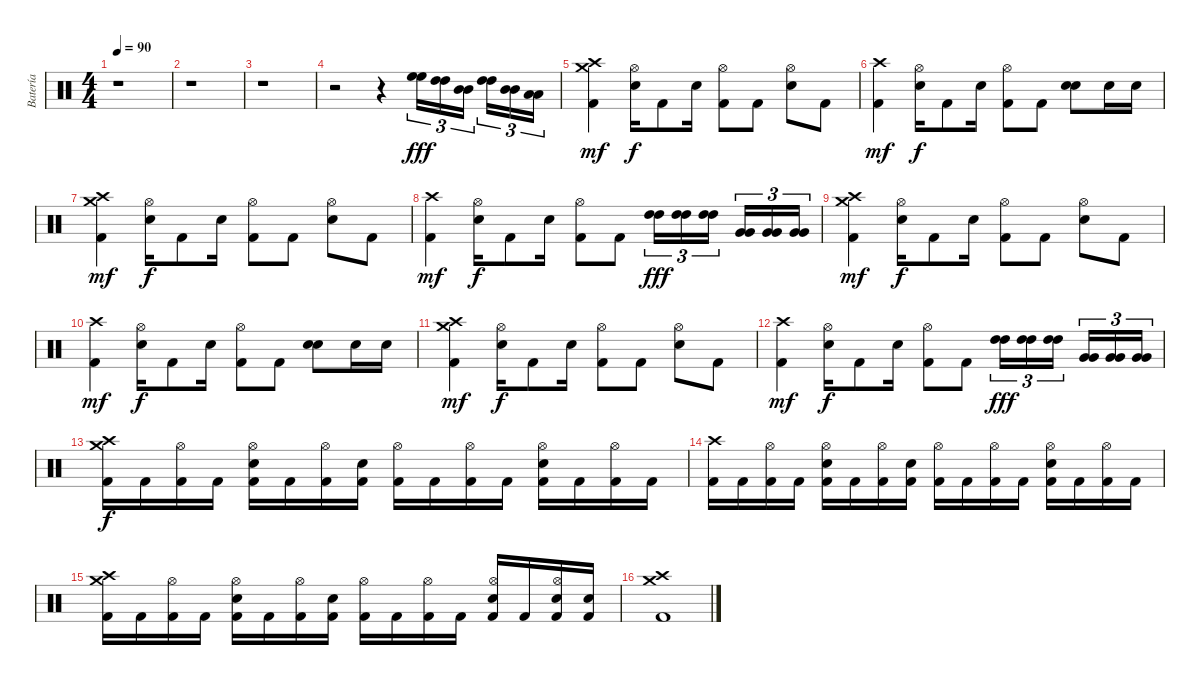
\track ("Batería" "Batería") {instrument percussion}
\staff {score}
\articulation defaults
\ts (4 4)
\tempo 90
\clef neutral
\ks c
r.1{dy fff} |
r.1 |
r.1 |
r.2 r.4 ("High Floor Tom (hit)" "High Floor Tom (hit)").16{tu (3 2)} ("High Tom (hit)" "High Tom (hit)").16{tu (3 2)} ("Mid Tom (hit)" "Mid Tom (hit)").16{tu (3 2)} ("High Tom (hit)" "High Tom (hit)").16{tu (3 2)} ("Mid Tom (hit)" "Mid Tom (hit)").16{tu (3 2)} ("Low Tom (hit)" "Low Tom (hit)").16{tu (3 2)} |
("Crash high (hit)" "Crash medium (hit)" "Kick (hit) 2").4{dy mf} ("Hi-Hat (open)" "Snare (hit) 2").16{dy f} "Kick (hit) 2".8 "Snare (hit) 2".16 ("Hi-Hat (open)" "Kick (hit) 2").8 "Kick (hit) 2".8 ("Hi-Hat (open)" "Snare (hit) 2").8 "Kick (hit) 2".8 |
("Crash high (hit)" "Kick (hit) 2").4{dy mf} ("Hi-Hat (open)" "Snare (hit) 2").16{dy f} "Kick (hit) 2".8 "Snare (hit) 2".16 ("Hi-Hat (open)" "Kick (hit) 2").8 "Kick (hit) 2".8 ("Snare (hit) 2" "Snare (hit) 2").8{bd 240} "Snare (hit) 2".16 "Snare (hit) 2".16 |
("Crash high (hit)" "Crash medium (hit)" "Kick (hit) 2").4{dy mf} ("Hi-Hat (open)" "Snare (hit) 2").16{dy f} "Kick (hit) 2".8 "Snare (hit) 2".16 ("Hi-Hat (open)" "Kick (hit) 2").8 "Kick (hit) 2".8 ("Hi-Hat (open)" "Snare (hit) 2").8 "Kick (hit) 2".8 |
("Crash high (hit)" "Kick (hit) 2").4{dy mf} ("Hi-Hat (open)" "Snare (hit) 2").16{dy f} "Kick (hit) 2".8 "Snare (hit) 2".16 ("Hi-Hat (open)" "Kick (hit) 2").8 "Kick (hit) 2".8 ("High Tom (hit)" "High Tom (hit)").16{tu (3 2) dy fff} ("High Tom (hit)" "High Tom (hit)").16{tu (3 2)} ("High Tom (hit)" "High Tom (hit)").16{tu (3 2)} ("Very Low Tom (hit)" "Very Low Tom (hit)").16{tu (3 2)} ("Very Low Tom (hit)" "Very Low Tom (hit)").16{tu (3 2)} ("Very Low Tom (hit)" "Very Low Tom (hit)").16{tu (3 2)} |
("Crash high (hit)" "Crash medium (hit)" "Kick (hit) 2").4{dy mf} ("Hi-Hat (open)" "Snare (hit) 2").16{dy f} "Kick (hit) 2".8 "Snare (hit) 2".16 ("Hi-Hat (open)" "Kick (hit) 2").8 "Kick (hit) 2".8 ("Hi-Hat (open)" "Snare (hit) 2").8 "Kick (hit) 2".8 |
("Crash high (hit)" "Kick (hit) 2").4{dy mf} ("Hi-Hat (open)" "Snare (hit) 2").16{dy f} "Kick (hit) 2".8 "Snare (hit) 2".16 ("Hi-Hat (open)" "Kick (hit) 2").8 "Kick (hit) 2".8 ("Snare (hit) 2" "Snare (hit) 2").8{bd 240} "Snare (hit) 2".16 "Snare (hit) 2".16 |
("Crash high (hit)" "Crash medium (hit)" "Kick (hit) 2").4{dy mf} ("Hi-Hat (open)" "Snare (hit) 2").16{dy f} "Kick (hit) 2".8 "Snare (hit) 2".16 ("Hi-Hat (open)" "Kick (hit) 2").8 "Kick (hit) 2".8 ("Hi-Hat (open)" "Snare (hit) 2").8 "Kick (hit) 2".8 |
("Crash high (hit)" "Kick (hit) 2").4{dy mf} ("Hi-Hat (open)" "Snare (hit) 2").16{dy f} "Kick (hit) 2".8 "Snare (hit) 2".16 ("Hi-Hat (open)" "Kick (hit) 2").8 "Kick (hit) 2".8 ("High Tom (hit)" "High Tom (hit)").16{tu (3 2) dy fff} ("High Tom (hit)" "High Tom (hit)").16{tu (3 2)} ("High Tom (hit)" "High Tom (hit)").16{tu (3 2)} ("Very Low Tom (hit)" "Very Low Tom (hit)").16{tu (3 2)} ("Very Low Tom (hit)" "Very Low Tom (hit)").16{tu (3 2)} ("Very Low Tom (hit)" "Very Low Tom (hit)").16{tu (3 2)} |
("Crash high (hit)" "Crash medium (hit)" "Kick (hit) 2").16{dy f} "Kick (hit) 2".16 ("Hi-Hat (open)" "Kick (hit) 2").16 "Kick (hit) 2".16 ("Hi-Hat (open)" "Snare (hit) 2" "Kick (hit) 2").16 "Kick (hit) 2".16 ("Hi-Hat (open)" "Kick (hit) 2").16 ("Snare (hit) 2" "Kick (hit) 2").16 ("Hi-Hat (open)" "Kick (hit) 2").16 "Kick (hit) 2".16 ("Hi-Hat (open)" "Kick (hit) 2").16 "Kick (hit) 2".16 ("Hi-Hat (open)" "Snare (hit) 2" "Kick (hit) 2").16 "Kick (hit) 2".16 ("Hi-Hat (open)" "Kick (hit) 2").16 "Kick (hit) 2".16 |
("Crash high (hit)" "Kick (hit) 2").16 "Kick (hit) 2".16 ("Hi-Hat (open)" "Kick (hit) 2").16 "Kick (hit) 2".16 ("Hi-Hat (open)" "Snare (hit) 2" "Kick (hit) 2").16 "Kick (hit) 2".16 ("Hi-Hat (open)" "Kick (hit) 2").16 ("Snare (hit) 2" "Kick (hit) 2").16 ("Hi-Hat (open)" "Kick (hit) 2").16 "Kick (hit) 2".16 ("Hi-Hat (open)" "Kick (hit) 2").16 "Kick (hit) 2".16 ("Hi-Hat (open)" "Snare (hit) 2" "Kick (hit) 2").16 "Kick (hit) 2".16 ("Hi-Hat (open)" "Kick (hit) 2").16 "Kick (hit) 2".16 |
("Crash high (hit)" "Crash medium (hit)" "Kick (hit) 2").16 "Kick (hit) 2".16 ("Hi-Hat (open)" "Kick (hit) 2").16 "Kick (hit) 2".16 ("Hi-Hat (open)" "Snare (hit) 2" "Kick (hit) 2").16 "Kick (hit) 2".16 ("Hi-Hat (open)" "Kick (hit) 2").16 ("Snare (hit) 2" "Kick (hit) 2").16 ("Hi-Hat (open)" "Kick (hit) 2").16 "Kick (hit) 2".16 ("Hi-Hat (open)" "Kick (hit) 2").16 "Kick (hit) 2".16 ("Hi-Hat (open)" "Snare (hit) 2" "Kick (hit) 2").16 "Kick (hit) 2".16 ("Hi-Hat (open)" "Snare (hit) 2" "Kick (hit) 2").16 ("Snare (hit) 2" "Kick (hit) 2").16 |
("Crash high (hit)" "Crash medium (hit)" "Kick (hit) 2").1
